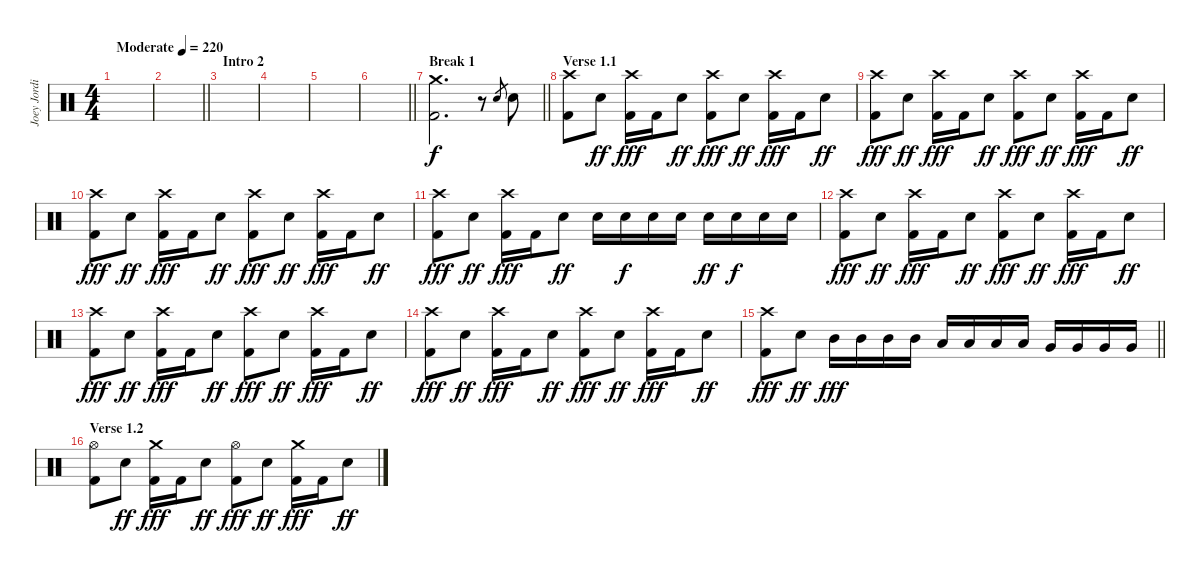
\track ("Joey Jordison" "Joey Jordi") {instrument percussion}
\staff {score}
\articulation defaults
\ts (4 4)
\tempo (220 "Moderate")
\clef neutral
\ks c
|
\barLineRight lightlight
|
\section ("" "Intro 2")
|
|
|
\barLineRight lightlight
|
\section ("" "Break 1")
\barLineRight lightlight
("Crash medium (hit)" "Kick (hit) 2").2{d} r.8 "Electric Snare (hit)".8{gr} "Electric Snare (hit)".8 |
\section ("" "Verse 1.1")
("Crash high (hit)" "Kick (hit) 2").8 "Electric Snare (hit)".8{dy ff} ("Crash high (hit)" "Kick (hit) 2").16{dy fff} "Kick (hit) 2".16 "Electric Snare (hit)".8{dy ff} ("Crash high (hit)" "Kick (hit) 2").8{dy fff} "Electric Snare (hit)".8{dy ff} ("Crash high (hit)" "Kick (hit) 2").16{dy fff} "Kick (hit) 2".16 "Electric Snare (hit)".8{dy ff} |
("Crash high (hit)" "Kick (hit) 2").8{dy fff} "Electric Snare (hit)".8{dy ff} ("Crash high (hit)" "Kick (hit) 2").16{dy fff} "Kick (hit) 2".16 "Electric Snare (hit)".8{dy ff} ("Crash high (hit)" "Kick (hit) 2").8{dy fff} "Electric Snare (hit)".8{dy ff} ("Crash high (hit)" "Kick (hit) 2").16{dy fff} "Kick (hit) 2".16 "Electric Snare (hit)".8{dy ff} |
("Crash high (hit)" "Kick (hit) 2").8{dy fff} "Electric Snare (hit)".8{dy ff} ("Crash high (hit)" "Kick (hit) 2").16{dy fff} "Kick (hit) 2".16 "Electric Snare (hit)".8{dy ff} ("Crash high (hit)" "Kick (hit) 2").8{dy fff} "Electric Snare (hit)".8{dy ff} ("Crash high (hit)" "Kick (hit) 2").16{dy fff} "Kick (hit) 2".16 "Electric Snare (hit)".8{dy ff} |
("Crash high (hit)" "Kick (hit) 2").8{dy fff} "Electric Snare (hit)".8{dy ff} ("Crash high (hit)" "Kick (hit) 2").16{dy fff} "Kick (hit) 2".16 "Electric Snare (hit)".8{dy ff} "Electric Snare (hit)".16 "Electric Snare (hit)".16{dy f} "Electric Snare (hit)".16 "Electric Snare (hit)".16 "Electric Snare (hit)".16{dy ff} "Electric Snare (hit)".16{dy f} "Electric Snare (hit)".16 "Electric Snare (hit)".16 |
("Crash high (hit)" "Kick (hit) 2").8{dy fff} "Electric Snare (hit)".8{dy ff} ("Crash high (hit)" "Kick (hit) 2").16{dy fff} "Kick (hit) 2".16 "Electric Snare (hit)".8{dy ff} ("Crash high (hit)" "Kick (hit) 2").8{dy fff} "Electric Snare (hit)".8{dy ff} ("Crash high (hit)" "Kick (hit) 2").16{dy fff} "Kick (hit) 2".16 "Electric Snare (hit)".8{dy ff} |
("Crash high (hit)" "Kick (hit) 2").8{dy fff} "Electric Snare (hit)".8{dy ff} ("Crash high (hit)" "Kick (hit) 2").16{dy fff} "Kick (hit) 2".16 "Electric Snare (hit)".8{dy ff} ("Crash high (hit)" "Kick (hit) 2").8{dy fff} "Electric Snare (hit)".8{dy ff} ("Crash high (hit)" "Kick (hit) 2").16{dy fff} "Kick (hit) 2".16 "Electric Snare (hit)".8{dy ff} |
("Crash high (hit)" "Kick (hit) 2").8{dy fff} "Electric Snare (hit)".8{dy ff} ("Crash high (hit)" "Kick (hit) 2").16{dy fff} "Kick (hit) 2".16 "Electric Snare (hit)".8{dy ff} ("Crash high (hit)" "Kick (hit) 2").8{dy fff} "Electric Snare (hit)".8{dy ff} ("Crash high (hit)" "Kick (hit) 2").16{dy fff} "Kick (hit) 2".16 "Electric Snare (hit)".8{dy ff} |
\barLineRight lightlight
("Crash high (hit)" "Kick (hit) 2").8{dy fff} "Electric Snare (hit)".8{dy ff} "Mid Tom (hit)".16{dy fff} "Mid Tom (hit)".16 "Mid Tom (hit)".16 "Mid Tom (hit)".16 "Low Tom (hit)".16 "Low Tom (hit)".16 "Low Tom (hit)".16 "Low Tom (hit)".16 "Very Low Tom (hit)".16 "Very Low Tom (hit)".16 "Very Low Tom (hit)".16 "Very Low Tom (hit)".16 |
\section ("" "Verse 1.2")
("Hi-Hat (open)" "Kick (hit) 2").8 "Electric Snare (hit)".8{dy ff} ("Crash medium (hit)" "Kick (hit) 2").16{dy fff} "Kick (hit) 2".16 "Electric Snare (hit)".8{dy ff} ("Hi-Hat (open)" "Kick (hit) 2").8{dy fff} "Electric Snare (hit)".8{dy ff} ("Crash medium (hit)" "Kick (hit) 2").16{dy fff} "Kick (hit) 2".16 "Electric Snare (hit)".8{dy ff}
